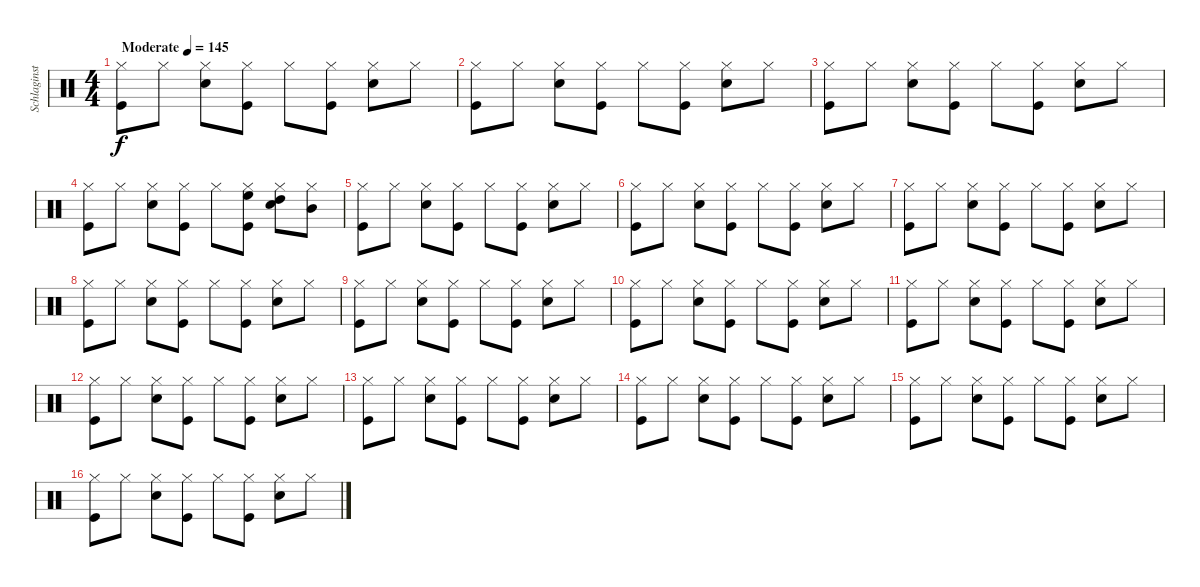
\track ("Schlaginstrumente - Auswahl" "Schlaginst") {instrument percussion}
\staff {score}
\articulation defaults
\ts (4 4)
\tempo (145 "Moderate")
\clef neutral
\ks c
("Kick (hit)" "Hi-Hat (closed)").8{dy f} "Hi-Hat (closed)".8 ("Snare (hit) 2" "Hi-Hat (closed)").8 ("Hi-Hat (closed)" "Kick (hit)").8 "Hi-Hat (closed)".8 ("Hi-Hat (closed)" "Kick (hit)").8 ("Snare (hit) 2" "Hi-Hat (closed)").8 "Hi-Hat (closed)".8 |
("Kick (hit)" "Hi-Hat (closed)").8 "Hi-Hat (closed)".8 ("Snare (hit) 2" "Hi-Hat (closed)").8 ("Hi-Hat (closed)" "Kick (hit)").8 "Hi-Hat (closed)".8 ("Hi-Hat (closed)" "Kick (hit)").8 ("Snare (hit) 2" "Hi-Hat (closed)").8 "Hi-Hat (closed)".8 |
("Kick (hit)" "Hi-Hat (closed)").8 "Hi-Hat (closed)".8 ("Snare (hit) 2" "Hi-Hat (closed)").8 ("Hi-Hat (closed)" "Kick (hit)").8 "Hi-Hat (closed)".8 ("Hi-Hat (closed)" "Kick (hit)").8 ("Snare (hit) 2" "Hi-Hat (closed)").8 "Hi-Hat (closed)".8 |
("Kick (hit)" "Hi-Hat (closed)").8 "Hi-Hat (closed)".8 ("Snare (hit) 2" "Hi-Hat (closed)").8 ("Hi-Hat (closed)" "Kick (hit)").8 "Hi-Hat (closed)".8 ("Hi-Hat (closed)" "Kick (hit)" "High Floor Tom (hit)").8 ("Snare (hit) 2" "Hi-Hat (closed)" "High Tom (hit)").8 ("Hi-Hat (closed)" "Mid Tom (hit)").8 |
("Kick (hit)" "Hi-Hat (closed)").8 "Hi-Hat (closed)".8 ("Snare (hit) 2" "Hi-Hat (closed)").8 ("Hi-Hat (closed)" "Kick (hit)").8 "Hi-Hat (closed)".8 ("Hi-Hat (closed)" "Kick (hit)").8 ("Snare (hit) 2" "Hi-Hat (closed)").8 "Hi-Hat (closed)".8 |
("Kick (hit)" "Hi-Hat (closed)").8 "Hi-Hat (closed)".8 ("Snare (hit) 2" "Hi-Hat (closed)").8 ("Hi-Hat (closed)" "Kick (hit)").8 "Hi-Hat (closed)".8 ("Hi-Hat (closed)" "Kick (hit)").8 ("Snare (hit) 2" "Hi-Hat (closed)").8 "Hi-Hat (closed)".8 |
("Kick (hit)" "Hi-Hat (closed)").8 "Hi-Hat (closed)".8 ("Snare (hit) 2" "Hi-Hat (closed)").8 ("Hi-Hat (closed)" "Kick (hit)").8 "Hi-Hat (closed)".8 ("Hi-Hat (closed)" "Kick (hit)").8 ("Snare (hit) 2" "Hi-Hat (closed)").8 "Hi-Hat (closed)".8 |
("Kick (hit)" "Hi-Hat (closed)").8 "Hi-Hat (closed)".8 ("Snare (hit) 2" "Hi-Hat (closed)").8 ("Hi-Hat (closed)" "Kick (hit)").8 "Hi-Hat (closed)".8 ("Hi-Hat (closed)" "Kick (hit)").8 ("Snare (hit) 2" "Hi-Hat (closed)").8 "Hi-Hat (closed)".8 |
("Kick (hit)" "Hi-Hat (closed)").8 "Hi-Hat (closed)".8 ("Snare (hit) 2" "Hi-Hat (closed)").8 ("Hi-Hat (closed)" "Kick (hit)").8 "Hi-Hat (closed)".8 ("Hi-Hat (closed)" "Kick (hit)").8 ("Snare (hit) 2" "Hi-Hat (closed)").8 "Hi-Hat (closed)".8 |
("Kick (hit)" "Hi-Hat (closed)").8 "Hi-Hat (closed)".8 ("Snare (hit) 2" "Hi-Hat (closed)").8 ("Hi-Hat (closed)" "Kick (hit)").8 "Hi-Hat (closed)".8 ("Hi-Hat (closed)" "Kick (hit)").8 ("Snare (hit) 2" "Hi-Hat (closed)").8 "Hi-Hat (closed)".8 |
("Kick (hit)" "Hi-Hat (closed)").8 "Hi-Hat (closed)".8 ("Snare (hit) 2" "Hi-Hat (closed)").8 ("Hi-Hat (closed)" "Kick (hit)").8 "Hi-Hat (closed)".8 ("Hi-Hat (closed)" "Kick (hit)").8 ("Snare (hit) 2" "Hi-Hat (closed)").8 "Hi-Hat (closed)".8 |
("Kick (hit)" "Hi-Hat (closed)").8 "Hi-Hat (closed)".8 ("Snare (hit) 2" "Hi-Hat (closed)").8 ("Hi-Hat (closed)" "Kick (hit)").8 "Hi-Hat (closed)".8 ("Hi-Hat (closed)" "Kick (hit)").8 ("Snare (hit) 2" "Hi-Hat (closed)").8 "Hi-Hat (closed)".8 |
("Kick (hit)" "Hi-Hat (closed)").8 "Hi-Hat (closed)".8 ("Snare (hit) 2" "Hi-Hat (closed)").8 ("Hi-Hat (closed)" "Kick (hit)").8 "Hi-Hat (closed)".8 ("Hi-Hat (closed)" "Kick (hit)").8 ("Snare (hit) 2" "Hi-Hat (closed)").8 "Hi-Hat (closed)".8 |
("Kick (hit)" "Hi-Hat (closed)").8 "Hi-Hat (closed)".8 ("Snare (hit) 2" "Hi-Hat (closed)").8 ("Hi-Hat (closed)" "Kick (hit)").8 "Hi-Hat (closed)".8 ("Hi-Hat (closed)" "Kick (hit)").8 ("Snare (hit) 2" "Hi-Hat (closed)").8 "Hi-Hat (closed)".8 |
("Kick (hit)" "Hi-Hat (closed)").8 "Hi-Hat (closed)".8 ("Snare (hit) 2" "Hi-Hat (closed)").8 ("Hi-Hat (closed)" "Kick (hit)").8 "Hi-Hat (closed)".8 ("Hi-Hat (closed)" "Kick (hit)").8 ("Snare (hit) 2" "Hi-Hat (closed)").8 "Hi-Hat (closed)".8 |
("Kick (hit)" "Hi-Hat (closed)").8 "Hi-Hat (closed)".8 ("Snare (hit) 2" "Hi-Hat (closed)").8 ("Hi-Hat (closed)" "Kick (hit)").8 "Hi-Hat (closed)".8 ("Hi-Hat (closed)" "Kick (hit)").8 ("Snare (hit) 2" "Hi-Hat (closed)").8 "Hi-Hat (closed)".8
